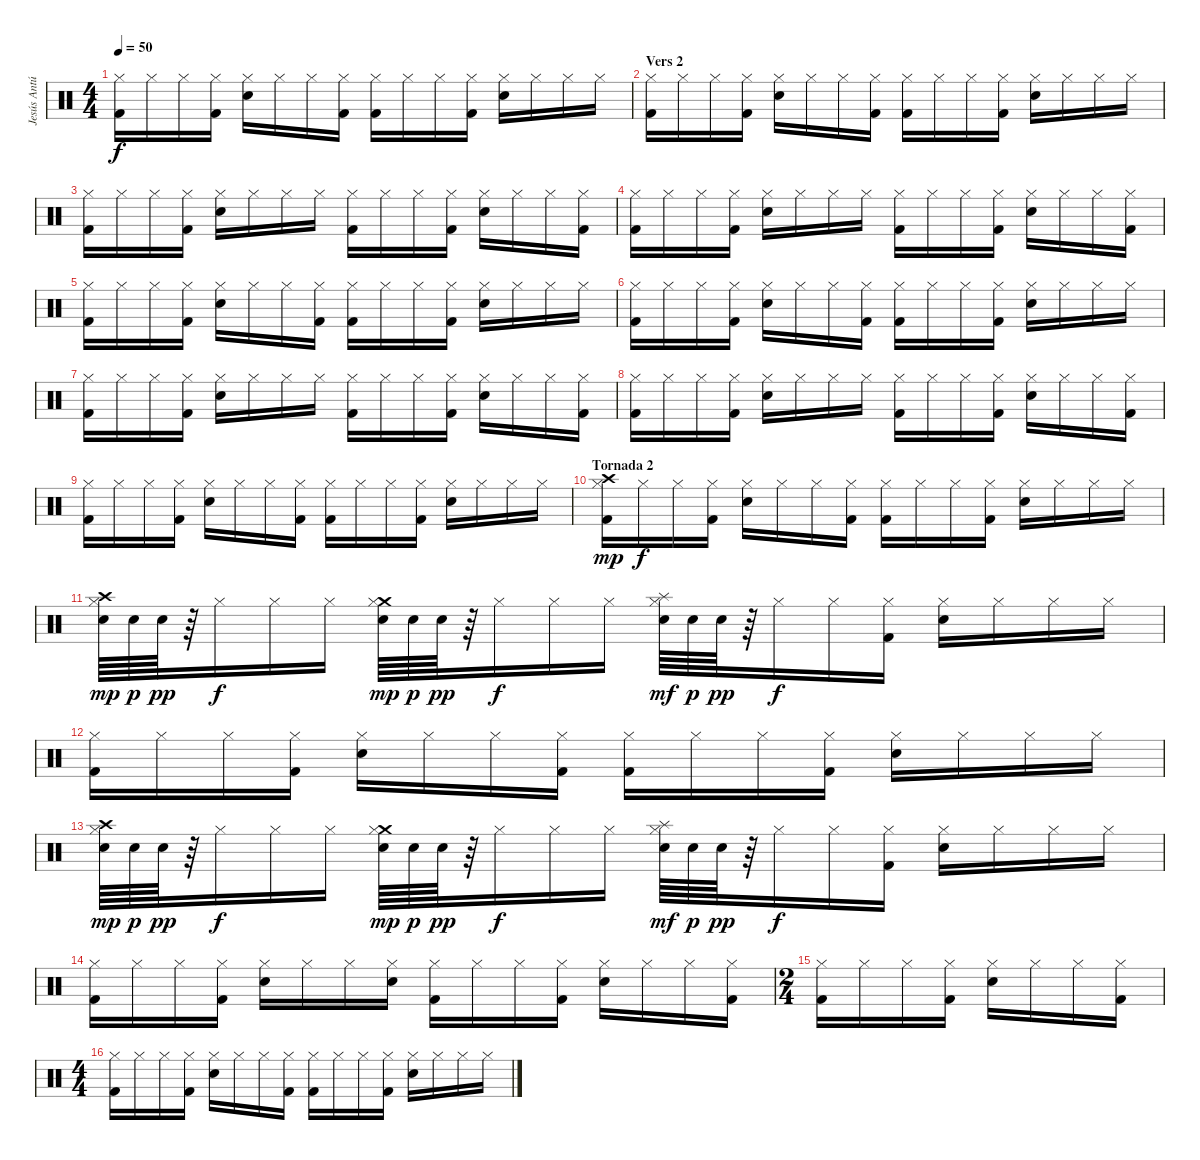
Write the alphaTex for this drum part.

\track ("Jesús Antúnez (Bateria)" "Jesús Antú") {instrument percussion}
\staff {score}
\articulation defaults
\ts (4 4)
\tempo 50
\clef neutral
\ks c
("Hi-Hat (closed)" "Kick (hit) 2").16{dy f} "Hi-Hat (closed)".16 "Hi-Hat (closed)".16 ("Hi-Hat (closed)" "Kick (hit) 2").16 ("Hi-Hat (closed)" "Snare (hit) 2").16 "Hi-Hat (closed)".16 "Hi-Hat (closed)".16 ("Hi-Hat (closed)" "Kick (hit) 2").16 ("Hi-Hat (closed)" "Kick (hit) 2").16 "Hi-Hat (closed)".16 "Hi-Hat (closed)".16 ("Hi-Hat (closed)" "Kick (hit) 2").16 ("Hi-Hat (closed)" "Snare (hit) 2").16 "Hi-Hat (closed)".16 "Hi-Hat (closed)".16 "Hi-Hat (closed)".16 |
\section ("" "Vers 2")
("Hi-Hat (closed)" "Kick (hit) 2").16 "Hi-Hat (closed)".16 "Hi-Hat (closed)".16 ("Hi-Hat (closed)" "Kick (hit) 2").16 ("Hi-Hat (closed)" "Snare (hit) 2").16 "Hi-Hat (closed)".16 "Hi-Hat (closed)".16 ("Hi-Hat (closed)" "Kick (hit) 2").16 ("Hi-Hat (closed)" "Kick (hit) 2").16 "Hi-Hat (closed)".16 "Hi-Hat (closed)".16 ("Hi-Hat (closed)" "Kick (hit) 2").16 ("Hi-Hat (closed)" "Snare (hit) 2").16 "Hi-Hat (closed)".16 "Hi-Hat (closed)".16 "Hi-Hat (closed)".16 |
("Hi-Hat (closed)" "Kick (hit) 2").16 "Hi-Hat (closed)".16 "Hi-Hat (closed)".16 ("Hi-Hat (closed)" "Kick (hit) 2").16 ("Hi-Hat (closed)" "Snare (hit) 2").16 "Hi-Hat (closed)".16 "Hi-Hat (closed)".16 "Hi-Hat (closed)".16 ("Hi-Hat (closed)" "Kick (hit) 2").16 "Hi-Hat (closed)".16 "Hi-Hat (closed)".16 ("Hi-Hat (closed)" "Kick (hit) 2").16 ("Hi-Hat (closed)" "Snare (hit) 2").16 "Hi-Hat (closed)".16 "Hi-Hat (closed)".16 ("Hi-Hat (closed)" "Kick (hit) 2").16 |
("Hi-Hat (closed)" "Kick (hit) 2").16 "Hi-Hat (closed)".16 "Hi-Hat (closed)".16 ("Hi-Hat (closed)" "Kick (hit) 2").16 ("Hi-Hat (closed)" "Snare (hit) 2").16 "Hi-Hat (closed)".16 "Hi-Hat (closed)".16 "Hi-Hat (closed)".16 ("Hi-Hat (closed)" "Kick (hit) 2").16 "Hi-Hat (closed)".16 "Hi-Hat (closed)".16 ("Hi-Hat (closed)" "Kick (hit) 2").16 ("Hi-Hat (closed)" "Snare (hit) 2").16 "Hi-Hat (closed)".16 "Hi-Hat (closed)".16 ("Hi-Hat (closed)" "Kick (hit) 2").16 |
("Hi-Hat (closed)" "Kick (hit) 2").16 "Hi-Hat (closed)".16 "Hi-Hat (closed)".16 ("Hi-Hat (closed)" "Kick (hit) 2").16 ("Hi-Hat (closed)" "Snare (hit) 2").16 "Hi-Hat (closed)".16 "Hi-Hat (closed)".16 ("Hi-Hat (closed)" "Kick (hit) 2").16 ("Hi-Hat (closed)" "Kick (hit) 2").16 "Hi-Hat (closed)".16 "Hi-Hat (closed)".16 ("Hi-Hat (closed)" "Kick (hit) 2").16 ("Hi-Hat (closed)" "Snare (hit) 2").16 "Hi-Hat (closed)".16 "Hi-Hat (closed)".16 "Hi-Hat (closed)".16 |
("Hi-Hat (closed)" "Kick (hit) 2").16 "Hi-Hat (closed)".16 "Hi-Hat (closed)".16 ("Hi-Hat (closed)" "Kick (hit) 2").16 ("Hi-Hat (closed)" "Snare (hit) 2").16 "Hi-Hat (closed)".16 "Hi-Hat (closed)".16 ("Hi-Hat (closed)" "Kick (hit) 2").16 ("Hi-Hat (closed)" "Kick (hit) 2").16 "Hi-Hat (closed)".16 "Hi-Hat (closed)".16 ("Hi-Hat (closed)" "Kick (hit) 2").16 ("Hi-Hat (closed)" "Snare (hit) 2").16 "Hi-Hat (closed)".16 "Hi-Hat (closed)".16 "Hi-Hat (closed)".16 |
("Hi-Hat (closed)" "Kick (hit) 2").16 "Hi-Hat (closed)".16 "Hi-Hat (closed)".16 ("Hi-Hat (closed)" "Kick (hit) 2").16 ("Hi-Hat (closed)" "Snare (hit) 2").16 "Hi-Hat (closed)".16 "Hi-Hat (closed)".16 "Hi-Hat (closed)".16 ("Hi-Hat (closed)" "Kick (hit) 2").16 "Hi-Hat (closed)".16 "Hi-Hat (closed)".16 ("Hi-Hat (closed)" "Kick (hit) 2").16 ("Hi-Hat (closed)" "Snare (hit) 2").16 "Hi-Hat (closed)".16 "Hi-Hat (closed)".16 ("Hi-Hat (closed)" "Kick (hit) 2").16 |
("Hi-Hat (closed)" "Kick (hit) 2").16 "Hi-Hat (closed)".16 "Hi-Hat (closed)".16 ("Hi-Hat (closed)" "Kick (hit) 2").16 ("Hi-Hat (closed)" "Snare (hit) 2").16 "Hi-Hat (closed)".16 "Hi-Hat (closed)".16 "Hi-Hat (closed)".16 ("Hi-Hat (closed)" "Kick (hit) 2").16 "Hi-Hat (closed)".16 "Hi-Hat (closed)".16 ("Hi-Hat (closed)" "Kick (hit) 2").16 ("Hi-Hat (closed)" "Snare (hit) 2").16 "Hi-Hat (closed)".16 "Hi-Hat (closed)".16 ("Hi-Hat (closed)" "Kick (hit) 2").16 |
("Hi-Hat (closed)" "Kick (hit) 2").16 "Hi-Hat (closed)".16 "Hi-Hat (closed)".16 ("Hi-Hat (closed)" "Kick (hit) 2").16 ("Hi-Hat (closed)" "Snare (hit) 2").16 "Hi-Hat (closed)".16 "Hi-Hat (closed)".16 ("Hi-Hat (closed)" "Kick (hit) 2").16 ("Hi-Hat (closed)" "Kick (hit) 2").16 "Hi-Hat (closed)".16 "Hi-Hat (closed)".16 ("Hi-Hat (closed)" "Kick (hit) 2").16 ("Hi-Hat (closed)" "Snare (hit) 2").16 "Hi-Hat (closed)".16 "Hi-Hat (closed)".16 "Hi-Hat (closed)".16 |
\section ("" "Tornada 2")
("Hi-Hat (closed)" "Crash high (hit)" "Kick (hit) 2").16{dy mp} "Hi-Hat (closed)".16{dy f} "Hi-Hat (closed)".16 ("Hi-Hat (closed)" "Kick (hit) 2").16 ("Hi-Hat (closed)" "Snare (hit) 2").16 "Hi-Hat (closed)".16 "Hi-Hat (closed)".16 ("Hi-Hat (closed)" "Kick (hit) 2").16 ("Hi-Hat (closed)" "Kick (hit) 2").16 "Hi-Hat (closed)".16 "Hi-Hat (closed)".16 ("Hi-Hat (closed)" "Kick (hit) 2").16 ("Hi-Hat (closed)" "Snare (hit) 2").16 "Hi-Hat (closed)".16 "Hi-Hat (closed)".16 "Hi-Hat (closed)".16 |
("Crash high (hit)" "Hi-Hat (closed)" "Snare (hit) 2").64{dy mp} "Snare (hit) 2".64{dy p} "Snare (hit) 2".64{dy pp} r.64 "Hi-Hat (closed)".16{dy f} "Hi-Hat (closed)".16 "Hi-Hat (closed)".16 ("Snare (hit) 2" "Crash medium (hit)" "Hi-Hat (closed)").64{dy mp} "Snare (hit) 2".64{dy p} "Snare (hit) 2".64{dy pp} r.64 "Hi-Hat (closed)".16{dy f} "Hi-Hat (closed)".16 "Hi-Hat (closed)".16 ("Hi-Hat (closed)" "Snare (hit) 2" "Splash (hit)").64{dy mf} "Snare (hit) 2".64{dy p} "Snare (hit) 2".64{dy pp} r.64 "Hi-Hat (closed)".16{dy f} "Hi-Hat (closed)".16 ("Hi-Hat (closed)" "Kick (hit) 2").16 ("Hi-Hat (closed)" "Snare (hit) 2").16 "Hi-Hat (closed)".16 "Hi-Hat (closed)".16 "Hi-Hat (closed)".16 |
("Hi-Hat (closed)" "Kick (hit) 2").16 "Hi-Hat (closed)".16 "Hi-Hat (closed)".16 ("Hi-Hat (closed)" "Kick (hit) 2").16 ("Hi-Hat (closed)" "Snare (hit) 2").16 "Hi-Hat (closed)".16 "Hi-Hat (closed)".16 ("Hi-Hat (closed)" "Kick (hit) 2").16 ("Hi-Hat (closed)" "Kick (hit) 2").16 "Hi-Hat (closed)".16 "Hi-Hat (closed)".16 ("Hi-Hat (closed)" "Kick (hit) 2").16 ("Hi-Hat (closed)" "Snare (hit) 2").16 "Hi-Hat (closed)".16 "Hi-Hat (closed)".16 "Hi-Hat (closed)".16 |
("Crash high (hit)" "Hi-Hat (closed)" "Snare (hit) 2").64{dy mp} "Snare (hit) 2".64{dy p} "Snare (hit) 2".64{dy pp} r.64 "Hi-Hat (closed)".16{dy f} "Hi-Hat (closed)".16 "Hi-Hat (closed)".16 ("Snare (hit) 2" "Crash medium (hit)" "Hi-Hat (closed)").64{dy mp} "Snare (hit) 2".64{dy p} "Snare (hit) 2".64{dy pp} r.64 "Hi-Hat (closed)".16{dy f} "Hi-Hat (closed)".16 "Hi-Hat (closed)".16 ("Hi-Hat (closed)" "Snare (hit) 2" "Splash (hit)").64{dy mf} "Snare (hit) 2".64{dy p} "Snare (hit) 2".64{dy pp} r.64 "Hi-Hat (closed)".16{dy f} "Hi-Hat (closed)".16 ("Hi-Hat (closed)" "Kick (hit) 2").16 ("Hi-Hat (closed)" "Snare (hit) 2").16 "Hi-Hat (closed)".16 "Hi-Hat (closed)".16 "Hi-Hat (closed)".16 |
("Hi-Hat (closed)" "Kick (hit) 2").16 "Hi-Hat (closed)".16 "Hi-Hat (closed)".16 ("Hi-Hat (closed)" "Kick (hit) 2").16 ("Hi-Hat (closed)" "Snare (hit) 2").16 "Hi-Hat (closed)".16 "Hi-Hat (closed)".16 ("Hi-Hat (closed)" "Snare (hit) 2").16 ("Hi-Hat (closed)" "Kick (hit) 2").16 "Hi-Hat (closed)".16 "Hi-Hat (closed)".16 ("Hi-Hat (closed)" "Kick (hit) 2").16 ("Hi-Hat (closed)" "Snare (hit) 2").16 "Hi-Hat (closed)".16 "Hi-Hat (closed)".16 ("Hi-Hat (closed)" "Kick (hit) 2").16 |
\ts (2 4)
("Hi-Hat (closed)" "Kick (hit) 2").16 "Hi-Hat (closed)".16 "Hi-Hat (closed)".16 ("Hi-Hat (closed)" "Kick (hit) 2").16 ("Hi-Hat (closed)" "Snare (hit) 2").16 "Hi-Hat (closed)".16 "Hi-Hat (closed)".16 ("Hi-Hat (closed)" "Kick (hit) 2").16 |
\ts (4 4)
("Hi-Hat (closed)" "Kick (hit) 2").16 "Hi-Hat (closed)".16 "Hi-Hat (closed)".16 ("Hi-Hat (closed)" "Kick (hit) 2").16 ("Hi-Hat (closed)" "Snare (hit) 2").16 "Hi-Hat (closed)".16 "Hi-Hat (closed)".16 ("Hi-Hat (closed)" "Kick (hit) 2").16 ("Hi-Hat (closed)" "Kick (hit) 2").16 "Hi-Hat (closed)".16 "Hi-Hat (closed)".16 ("Hi-Hat (closed)" "Kick (hit) 2").16 ("Hi-Hat (closed)" "Snare (hit) 2").16 "Hi-Hat (closed)".16 "Hi-Hat (closed)".16 "Hi-Hat (closed)".16
